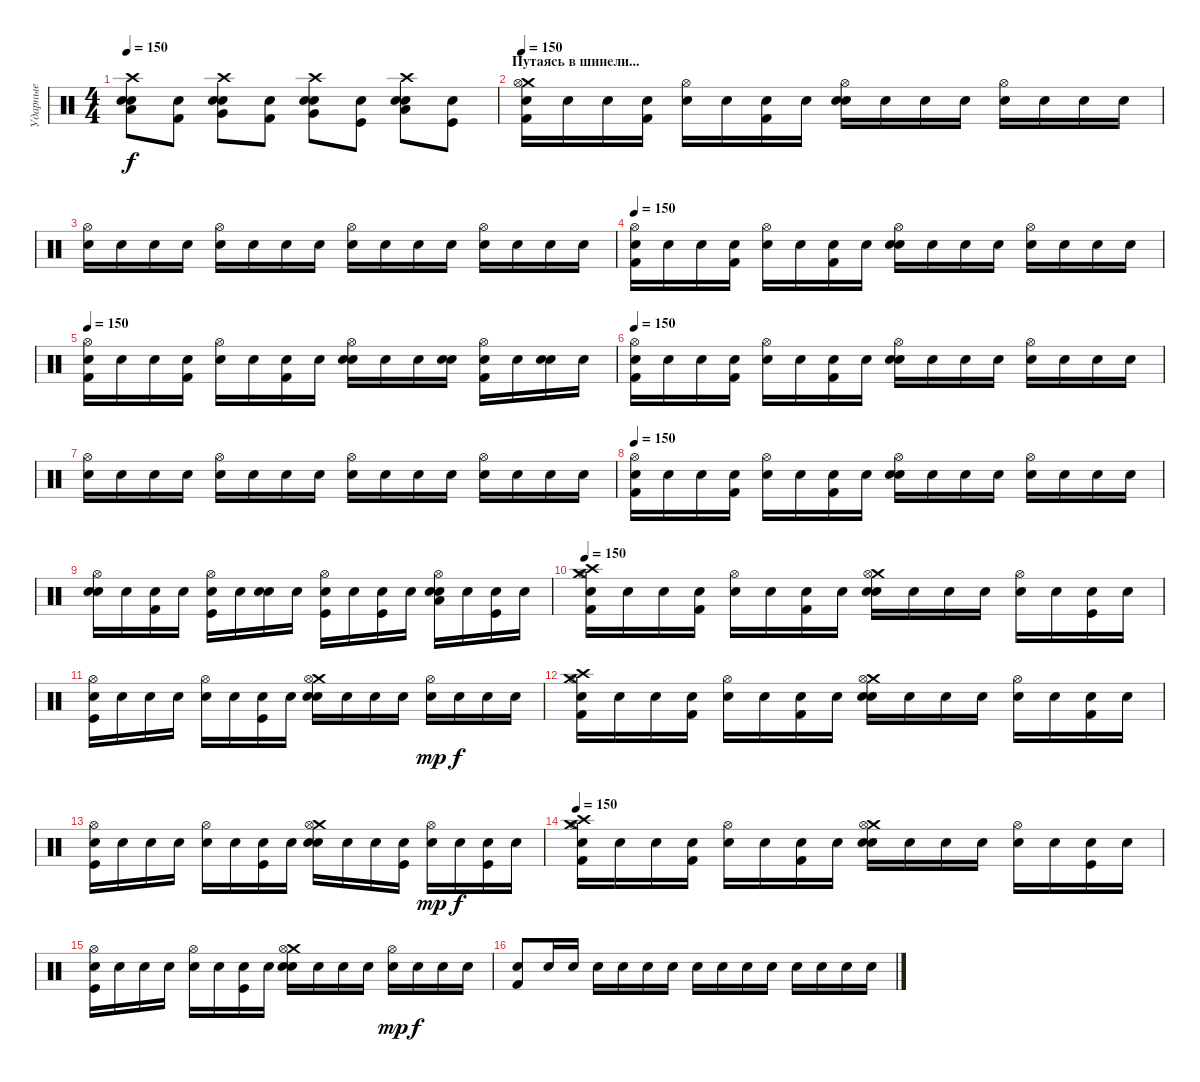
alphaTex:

\track ("Ударные" "Ударные") {instrument percussion}
\staff {score}
\articulation defaults
\ts (4 4)
\tempo 150
\clef neutral
\ks c
("Crash high (hit)" "Low Tom (hit)" "Snare (hit) 2" "Snare (hit)"{x}).8{dy f} ("Kick (hit) 2" "Snare (hit)"{x}).8 ("Crash high (hit)" "Very Low Tom (hit)" "Snare (hit) 2" "Snare (hit)"{x}).8 ("Kick (hit) 2" "Snare (hit)"{x}).8 ("Crash high (hit)" "Very Low Tom (hit)" "Snare (hit) 2" "Snare (hit)"{x}).8 ("Kick (hit)" "Snare (hit)"{x}).8 ("Crash high (hit)" "Low Floor Tom (hit)" "Snare (hit) 2" "Snare (hit)"{x}).8 ("Kick (hit)" "Snare (hit)"{x}).8 |
\section ("" "Путаясь в шинели...")
\tempo 150
("Crash medium (hit)" "Kick (hit) 2" "Hi-Hat (open)" "Snare (hit)"{x}).16 "Snare (hit)"{x}.16 "Snare (hit)"{x}.16 ("Kick (hit) 2" "Snare (hit)"{x}).16 ("Hi-Hat (open)" "Snare (hit)"{x}).16 "Snare (hit)"{x}.16 ("Kick (hit) 2" "Snare (hit)"{x}).16 "Snare (hit)"{x}.16 ("Snare (hit) 2" "Hi-Hat (open)" "Snare (hit)"{x}).16 "Snare (hit)"{x}.16 "Snare (hit)"{x}.16 "Snare (hit)"{x}.16 ("Hi-Hat (open)" "Snare (hit)"{x}).16 "Snare (hit)"{x}.16 "Snare (hit)"{x}.16 "Snare (hit)"{x}.16 |
("Hi-Hat (open)" "Snare (hit)"{x}).16 "Snare (hit)"{x}.16 "Snare (hit)"{x}.16 "Snare (hit)"{x}.16 ("Hi-Hat (open)" "Snare (hit)"{x}).16 "Snare (hit)"{x}.16 "Snare (hit)"{x}.16 "Snare (hit)"{x}.16 ("Hi-Hat (open)" "Snare (hit)"{x}).16 "Snare (hit)"{x}.16 "Snare (hit)"{x}.16 "Snare (hit)"{x}.16 ("Hi-Hat (open)" "Snare (hit)"{x}).16 "Snare (hit)"{x}.16 "Snare (hit)"{x}.16 "Snare (hit)"{x}.16 |
\tempo 150
("Kick (hit) 2" "Hi-Hat (open)" "Snare (hit)"{x}).16 "Snare (hit)"{x}.16 "Snare (hit)"{x}.16 ("Kick (hit) 2" "Snare (hit)"{x}).16 ("Hi-Hat (open)" "Snare (hit)"{x}).16 "Snare (hit)"{x}.16 ("Kick (hit) 2" "Snare (hit)"{x}).16 "Snare (hit)"{x}.16 ("Snare (hit) 2" "Hi-Hat (open)" "Snare (hit)"{x}).16 "Snare (hit)"{x}.16 "Snare (hit)"{x}.16 "Snare (hit)"{x}.16 ("Hi-Hat (open)" "Snare (hit)"{x}).16 "Snare (hit)"{x}.16 "Snare (hit)"{x}.16 "Snare (hit)"{x}.16 |
\tempo 150
("Kick (hit) 2" "Hi-Hat (open)" "Snare (hit)"{x}).16 "Snare (hit)"{x}.16 "Snare (hit)"{x}.16 ("Kick (hit) 2" "Snare (hit)"{x}).16 ("Hi-Hat (open)" "Snare (hit)"{x}).16 "Snare (hit)"{x}.16 ("Kick (hit) 2" "Snare (hit)"{x}).16 "Snare (hit)"{x}.16 ("Snare (hit) 2" "Hi-Hat (open)" "Snare (hit)"{x}).16 "Snare (hit)"{x}.16 "Snare (hit)"{x}.16 ("Snare (hit) 2" "Snare (hit)"{x}).16 ("Kick (hit) 2" "Hi-Hat (open)" "Snare (hit)"{x}).16 "Snare (hit)"{x}.16 ("Snare (hit) 2" "Snare (hit)"{x}).16 "Snare (hit)"{x}.16 |
\tempo 150
("Kick (hit) 2" "Hi-Hat (open)" "Snare (hit)"{x}).16 "Snare (hit)"{x}.16 "Snare (hit)"{x}.16 ("Kick (hit) 2" "Snare (hit)"{x}).16 ("Hi-Hat (open)" "Snare (hit)"{x}).16 "Snare (hit)"{x}.16 ("Kick (hit) 2" "Snare (hit)"{x}).16 "Snare (hit)"{x}.16 ("Snare (hit) 2" "Hi-Hat (open)" "Snare (hit)"{x}).16 "Snare (hit)"{x}.16 "Snare (hit)"{x}.16 "Snare (hit)"{x}.16 ("Hi-Hat (open)" "Snare (hit)"{x}).16 "Snare (hit)"{x}.16 "Snare (hit)"{x}.16 "Snare (hit)"{x}.16 |
("Hi-Hat (open)" "Snare (hit)"{x}).16 "Snare (hit)"{x}.16 "Snare (hit)"{x}.16 "Snare (hit)"{x}.16 ("Hi-Hat (open)" "Snare (hit)"{x}).16 "Snare (hit)"{x}.16 "Snare (hit)"{x}.16 "Snare (hit)"{x}.16 ("Hi-Hat (open)" "Snare (hit)"{x}).16 "Snare (hit)"{x}.16 "Snare (hit)"{x}.16 "Snare (hit)"{x}.16 ("Hi-Hat (open)" "Snare (hit)"{x}).16 "Snare (hit)"{x}.16 "Snare (hit)"{x}.16 "Snare (hit)"{x}.16 |
\tempo 150
("Kick (hit) 2" "Hi-Hat (open)" "Snare (hit)"{x}).16 "Snare (hit)"{x}.16 "Snare (hit)"{x}.16 ("Kick (hit) 2" "Snare (hit)"{x}).16 ("Hi-Hat (open)" "Snare (hit)"{x}).16 "Snare (hit)"{x}.16 ("Kick (hit) 2" "Snare (hit)"{x}).16 "Snare (hit)"{x}.16 ("Snare (hit) 2" "Hi-Hat (open)" "Snare (hit)"{x}).16 "Snare (hit)"{x}.16 "Snare (hit)"{x}.16 "Snare (hit)"{x}.16 ("Hi-Hat (open)" "Snare (hit)"{x}).16 "Snare (hit)"{x}.16 "Snare (hit)"{x}.16 "Snare (hit)"{x}.16 |
("Snare (hit) 2" "Hi-Hat (open)" "Snare (hit)"{x}).16 "Snare (hit)"{x}.16 ("Kick (hit) 2" "Snare (hit)"{x}).16 "Snare (hit)"{x}.16 ("Kick (hit)" "Hi-Hat (open)" "Snare (hit)"{x}).16 "Snare (hit)"{x}.16 ("Snare (hit) 2" "Snare (hit)"{x}).16 "Snare (hit)"{x}.16 ("Kick (hit)" "Hi-Hat (open)" "Snare (hit)"{x}).16 "Snare (hit)"{x}.16 ("Kick (hit)" "Snare (hit)"{x}).16 "Snare (hit)"{x}.16 ("Snare (hit) 2" "Low Floor Tom (hit)" "Hi-Hat (open)" "Snare (hit)"{x}).16 "Snare (hit)"{x}.16 ("Kick (hit)" "Snare (hit)"{x}).16 "Snare (hit)"{x}.16 |
\tempo 150
("Crash medium (hit)" "Crash high (hit)" "Kick (hit) 2" "Hi-Hat (open)" "Snare (hit)"{x}).16 "Snare (hit)"{x}.16 "Snare (hit)"{x}.16 ("Kick (hit) 2" "Snare (hit)"{x}).16 ("Hi-Hat (open)" "Snare (hit)"{x}).16 "Snare (hit)"{x}.16 ("Kick (hit) 2" "Snare (hit)"{x}).16 "Snare (hit)"{x}.16 ("Crash medium (hit)" "Snare (hit) 2" "Hi-Hat (open)" "Snare (hit)"{x}).16 "Snare (hit)"{x}.16 "Snare (hit)"{x}.16 "Snare (hit)"{x}.16 ("Hi-Hat (open)" "Snare (hit)"{x}).16 "Snare (hit)"{x}.16 ("Kick (hit)" "Snare (hit)"{x}).16 "Snare (hit)"{x}.16 |
("Kick (hit)" "Hi-Hat (open)" "Snare (hit)"{x}).16 "Snare (hit)"{x}.16 "Snare (hit)"{x}.16 "Snare (hit)"{x}.16 ("Hi-Hat (open)" "Snare (hit)"{x}).16 "Snare (hit)"{x}.16 ("Kick (hit)" "Snare (hit)"{x}).16 "Snare (hit)"{x}.16 ("Crash medium (hit)" "Snare (hit) 2" "Hi-Hat (open)" "Snare (hit)"{x}).16 "Snare (hit)"{x}.16 "Snare (hit)"{x}.16 "Snare (hit)"{x}.16 ("Hi-Hat (open)" "Snare (hit)"{x}).16{dy mp} "Snare (hit)"{x}.16{dy f} "Snare (hit)"{x}.16 "Snare (hit)"{x}.16 |
("Crash medium (hit)" "Crash high (hit)" "Kick (hit) 2" "Hi-Hat (open)" "Snare (hit)"{x}).16 "Snare (hit)"{x}.16 "Snare (hit)"{x}.16 ("Kick (hit) 2" "Snare (hit)"{x}).16 ("Hi-Hat (open)" "Snare (hit)"{x}).16 "Snare (hit)"{x}.16 ("Kick (hit) 2" "Snare (hit)"{x}).16 "Snare (hit)"{x}.16 ("Crash medium (hit)" "Snare (hit) 2" "Hi-Hat (open)" "Snare (hit)"{x}).16 "Snare (hit)"{x}.16 "Snare (hit)"{x}.16 "Snare (hit)"{x}.16 ("Hi-Hat (open)" "Snare (hit)"{x}).16 "Snare (hit)"{x}.16 ("Kick (hit) 2" "Snare (hit)"{x}).16 "Snare (hit)"{x}.16 |
("Kick (hit)" "Hi-Hat (open)" "Snare (hit)"{x}).16 "Snare (hit)"{x}.16 "Snare (hit)"{x}.16 "Snare (hit)"{x}.16 ("Hi-Hat (open)" "Snare (hit)"{x}).16 "Snare (hit)"{x}.16 ("Kick (hit)" "Snare (hit)"{x}).16 "Snare (hit)"{x}.16 ("Crash medium (hit)" "Snare (hit) 2" "Hi-Hat (open)" "Snare (hit)"{x}).16 "Snare (hit)"{x}.16 "Snare (hit)"{x}.16 ("Kick (hit)" "Snare (hit)"{x}).16 ("Hi-Hat (open)" "Snare (hit)"{x}).16{dy mp} "Snare (hit)"{x}.16{dy f} ("Kick (hit)" "Snare (hit)"{x}).16 "Snare (hit)"{x}.16 |
\tempo 150
("Crash medium (hit)" "Crash high (hit)" "Kick (hit) 2" "Hi-Hat (open)" "Snare (hit)"{x}).16 "Snare (hit)"{x}.16 "Snare (hit)"{x}.16 ("Kick (hit) 2" "Snare (hit)"{x}).16 ("Hi-Hat (open)" "Snare (hit)"{x}).16 "Snare (hit)"{x}.16 ("Kick (hit) 2" "Snare (hit)"{x}).16 "Snare (hit)"{x}.16 ("Crash medium (hit)" "Snare (hit) 2" "Hi-Hat (open)" "Snare (hit)"{x}).16 "Snare (hit)"{x}.16 "Snare (hit)"{x}.16 "Snare (hit)"{x}.16 ("Hi-Hat (open)" "Snare (hit)"{x}).16 "Snare (hit)"{x}.16 ("Kick (hit)" "Snare (hit)"{x}).16 "Snare (hit)"{x}.16 |
("Kick (hit)" "Hi-Hat (open)" "Snare (hit)"{x}).16 "Snare (hit)"{x}.16 "Snare (hit)"{x}.16 "Snare (hit)"{x}.16 ("Hi-Hat (open)" "Snare (hit)"{x}).16 "Snare (hit)"{x}.16 ("Kick (hit)" "Snare (hit)"{x}).16 "Snare (hit)"{x}.16 ("Crash medium (hit)" "Snare (hit) 2" "Hi-Hat (open)" "Snare (hit)"{x}).16 "Snare (hit)"{x}.16 "Snare (hit)"{x}.16 "Snare (hit)"{x}.16 ("Hi-Hat (open)" "Snare (hit)"{x}).16{dy mp} "Snare (hit)"{x}.16{dy f} "Snare (hit)"{x}.16 "Snare (hit)"{x}.16 |
("Snare (hit) 2" "Kick (hit) 2").8 "Snare (hit)"{x}.16 "Snare (hit)"{x}.16 "Snare (hit)"{x}.16 "Snare (hit)"{x}.16 "Snare (hit)"{x}.16 "Snare (hit)"{x}.16 "Snare (hit)"{x}.16 "Snare (hit)"{x}.16 "Snare (hit)"{x}.16 "Snare (hit)"{x}.16 "Snare (hit)"{x}.16 "Snare (hit)"{x}.16 "Snare (hit)"{x}.16 "Snare (hit)"{x}.16
